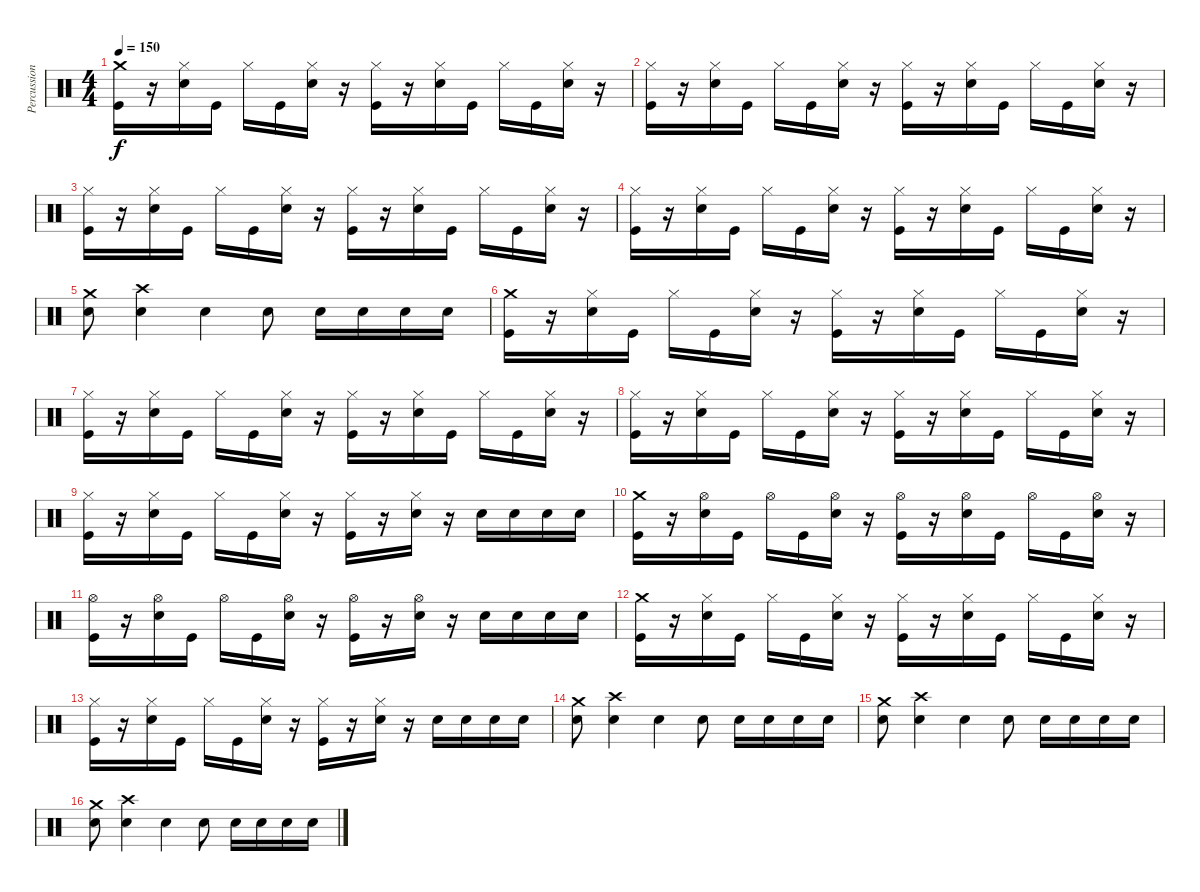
\track ("Percussion" "Percussion") {instrument percussion}
\staff {score}
\articulation defaults
\ts (4 4)
\tempo 150
\clef neutral
\ks c
("Crash medium (hit)" "Kick (hit)").16{dy f} r.16 ("Hi-Hat (closed)" "Snare (hit) 2").16 "Kick (hit)".16 "Hi-Hat (closed)".16 "Kick (hit)".16 ("Hi-Hat (closed)" "Snare (hit) 2").16 r.16 ("Hi-Hat (closed)" "Kick (hit)").16 r.16 ("Hi-Hat (closed)" "Snare (hit) 2").16 "Kick (hit)".16 "Hi-Hat (closed)".16 "Kick (hit)".16 ("Hi-Hat (closed)" "Snare (hit) 2").16 r.16 |
("Hi-Hat (closed)" "Kick (hit)").16 r.16 ("Hi-Hat (closed)" "Snare (hit) 2").16 "Kick (hit)".16 "Hi-Hat (closed)".16 "Kick (hit)".16 ("Hi-Hat (closed)" "Snare (hit) 2").16 r.16 ("Hi-Hat (closed)" "Kick (hit)").16 r.16 ("Hi-Hat (closed)" "Snare (hit) 2").16 "Kick (hit)".16 "Hi-Hat (closed)".16 "Kick (hit)".16 ("Hi-Hat (closed)" "Snare (hit) 2").16 r.16 |
("Hi-Hat (closed)" "Kick (hit)").16 r.16 ("Hi-Hat (closed)" "Snare (hit) 2").16 "Kick (hit)".16 "Hi-Hat (closed)".16 "Kick (hit)".16 ("Hi-Hat (closed)" "Snare (hit) 2").16 r.16 ("Hi-Hat (closed)" "Kick (hit)").16 r.16 ("Hi-Hat (closed)" "Snare (hit) 2").16 "Kick (hit)".16 "Hi-Hat (closed)".16 "Kick (hit)".16 ("Hi-Hat (closed)" "Snare (hit) 2").16 r.16 |
("Hi-Hat (closed)" "Kick (hit)").16 r.16 ("Hi-Hat (closed)" "Snare (hit) 2").16 "Kick (hit)".16 "Hi-Hat (closed)".16 "Kick (hit)".16 ("Hi-Hat (closed)" "Snare (hit) 2").16 r.16 ("Hi-Hat (closed)" "Kick (hit)").16 r.16 ("Hi-Hat (closed)" "Snare (hit) 2").16 "Kick (hit)".16 "Hi-Hat (closed)".16 "Kick (hit)".16 ("Hi-Hat (closed)" "Snare (hit) 2").16 r.16 |
("Crash medium (hit)" "Snare (hit) 2").8 ("Crash high (hit)" "Snare (hit) 2").4 "Snare (hit) 2".4 "Snare (hit) 2".8 "Snare (hit) 2".16 "Snare (hit) 2".16 "Snare (hit) 2".16 "Snare (hit) 2".16 |
("Crash medium (hit)" "Kick (hit)").16 r.16 ("Hi-Hat (closed)" "Snare (hit) 2").16 "Kick (hit)".16 "Hi-Hat (closed)".16 "Kick (hit)".16 ("Hi-Hat (closed)" "Snare (hit) 2").16 r.16 ("Hi-Hat (closed)" "Kick (hit)").16 r.16 ("Hi-Hat (closed)" "Snare (hit) 2").16 "Kick (hit)".16 "Hi-Hat (closed)".16 "Kick (hit)".16 ("Hi-Hat (closed)" "Snare (hit) 2").16 r.16 |
("Hi-Hat (closed)" "Kick (hit)").16 r.16 ("Hi-Hat (closed)" "Snare (hit) 2").16 "Kick (hit)".16 "Hi-Hat (closed)".16 "Kick (hit)".16 ("Hi-Hat (closed)" "Snare (hit) 2").16 r.16 ("Hi-Hat (closed)" "Kick (hit)").16 r.16 ("Hi-Hat (closed)" "Snare (hit) 2").16 "Kick (hit)".16 "Hi-Hat (closed)".16 "Kick (hit)".16 ("Hi-Hat (closed)" "Snare (hit) 2").16 r.16 |
("Hi-Hat (closed)" "Kick (hit)").16 r.16 ("Hi-Hat (closed)" "Snare (hit) 2").16 "Kick (hit)".16 "Hi-Hat (closed)".16 "Kick (hit)".16 ("Hi-Hat (closed)" "Snare (hit) 2").16 r.16 ("Hi-Hat (closed)" "Kick (hit)").16 r.16 ("Hi-Hat (closed)" "Snare (hit) 2").16 "Kick (hit)".16 "Hi-Hat (closed)".16 "Kick (hit)".16 ("Hi-Hat (closed)" "Snare (hit) 2").16 r.16 |
("Hi-Hat (closed)" "Kick (hit)").16 r.16 ("Hi-Hat (closed)" "Snare (hit) 2").16 "Kick (hit)".16 "Hi-Hat (closed)".16 "Kick (hit)".16 ("Hi-Hat (closed)" "Snare (hit) 2").16 r.16 ("Hi-Hat (closed)" "Kick (hit)").16 r.16 ("Hi-Hat (closed)" "Snare (hit) 2").16 r.16 "Snare (hit) 2".16 "Snare (hit) 2".16 "Snare (hit) 2".16 "Snare (hit) 2".16 |
("Crash medium (hit)" "Kick (hit)").16 r.16 ("Hi-Hat (open)" "Snare (hit) 2").16 "Kick (hit)".16 "Hi-Hat (open)".16 "Kick (hit)".16 ("Hi-Hat (open)" "Snare (hit) 2").16 r.16 ("Hi-Hat (open)" "Kick (hit)").16 r.16 ("Hi-Hat (open)" "Snare (hit) 2").16 "Kick (hit)".16 "Hi-Hat (open)".16 "Kick (hit)".16 ("Hi-Hat (open)" "Snare (hit) 2").16 r.16 |
("Hi-Hat (open)" "Kick (hit)").16 r.16 ("Hi-Hat (open)" "Snare (hit) 2").16 "Kick (hit)".16 "Hi-Hat (open)".16 "Kick (hit)".16 ("Hi-Hat (open)" "Snare (hit) 2").16 r.16 ("Hi-Hat (open)" "Kick (hit)").16 r.16 ("Hi-Hat (open)" "Snare (hit) 2").16 r.16 "Snare (hit) 2".16 "Snare (hit) 2".16 "Snare (hit) 2".16 "Snare (hit) 2".16 |
("Crash medium (hit)" "Kick (hit)").16 r.16 ("Hi-Hat (closed)" "Snare (hit) 2").16 "Kick (hit)".16 "Hi-Hat (closed)".16 "Kick (hit)".16 ("Hi-Hat (closed)" "Snare (hit) 2").16 r.16 ("Hi-Hat (closed)" "Kick (hit)").16 r.16 ("Hi-Hat (closed)" "Snare (hit) 2").16 "Kick (hit)".16 "Hi-Hat (closed)".16 "Kick (hit)".16 ("Hi-Hat (closed)" "Snare (hit) 2").16 r.16 |
("Hi-Hat (closed)" "Kick (hit)").16 r.16 ("Hi-Hat (closed)" "Snare (hit) 2").16 "Kick (hit)".16 "Hi-Hat (closed)".16 "Kick (hit)".16 ("Hi-Hat (closed)" "Snare (hit) 2").16 r.16 ("Hi-Hat (closed)" "Kick (hit)").16 r.16 ("Hi-Hat (closed)" "Snare (hit) 2").16 r.16 "Snare (hit) 2".16 "Snare (hit) 2".16 "Snare (hit) 2".16 "Snare (hit) 2".16 |
("Crash medium (hit)" "Snare (hit) 2").8 ("Crash high (hit)" "Snare (hit) 2").4 "Snare (hit) 2".4 "Snare (hit) 2".8 "Snare (hit) 2".16 "Snare (hit) 2".16 "Snare (hit) 2".16 "Snare (hit) 2".16 |
("Crash medium (hit)" "Snare (hit) 2").8 ("Crash high (hit)" "Snare (hit) 2").4 "Snare (hit) 2".4 "Snare (hit) 2".8 "Snare (hit) 2".16 "Snare (hit) 2".16 "Snare (hit) 2".16 "Snare (hit) 2".16 |
("Crash medium (hit)" "Snare (hit) 2").8 ("Crash high (hit)" "Snare (hit) 2").4 "Snare (hit) 2".4 "Snare (hit) 2".8 "Snare (hit) 2".16 "Snare (hit) 2".16 "Snare (hit) 2".16 "Snare (hit) 2".16
